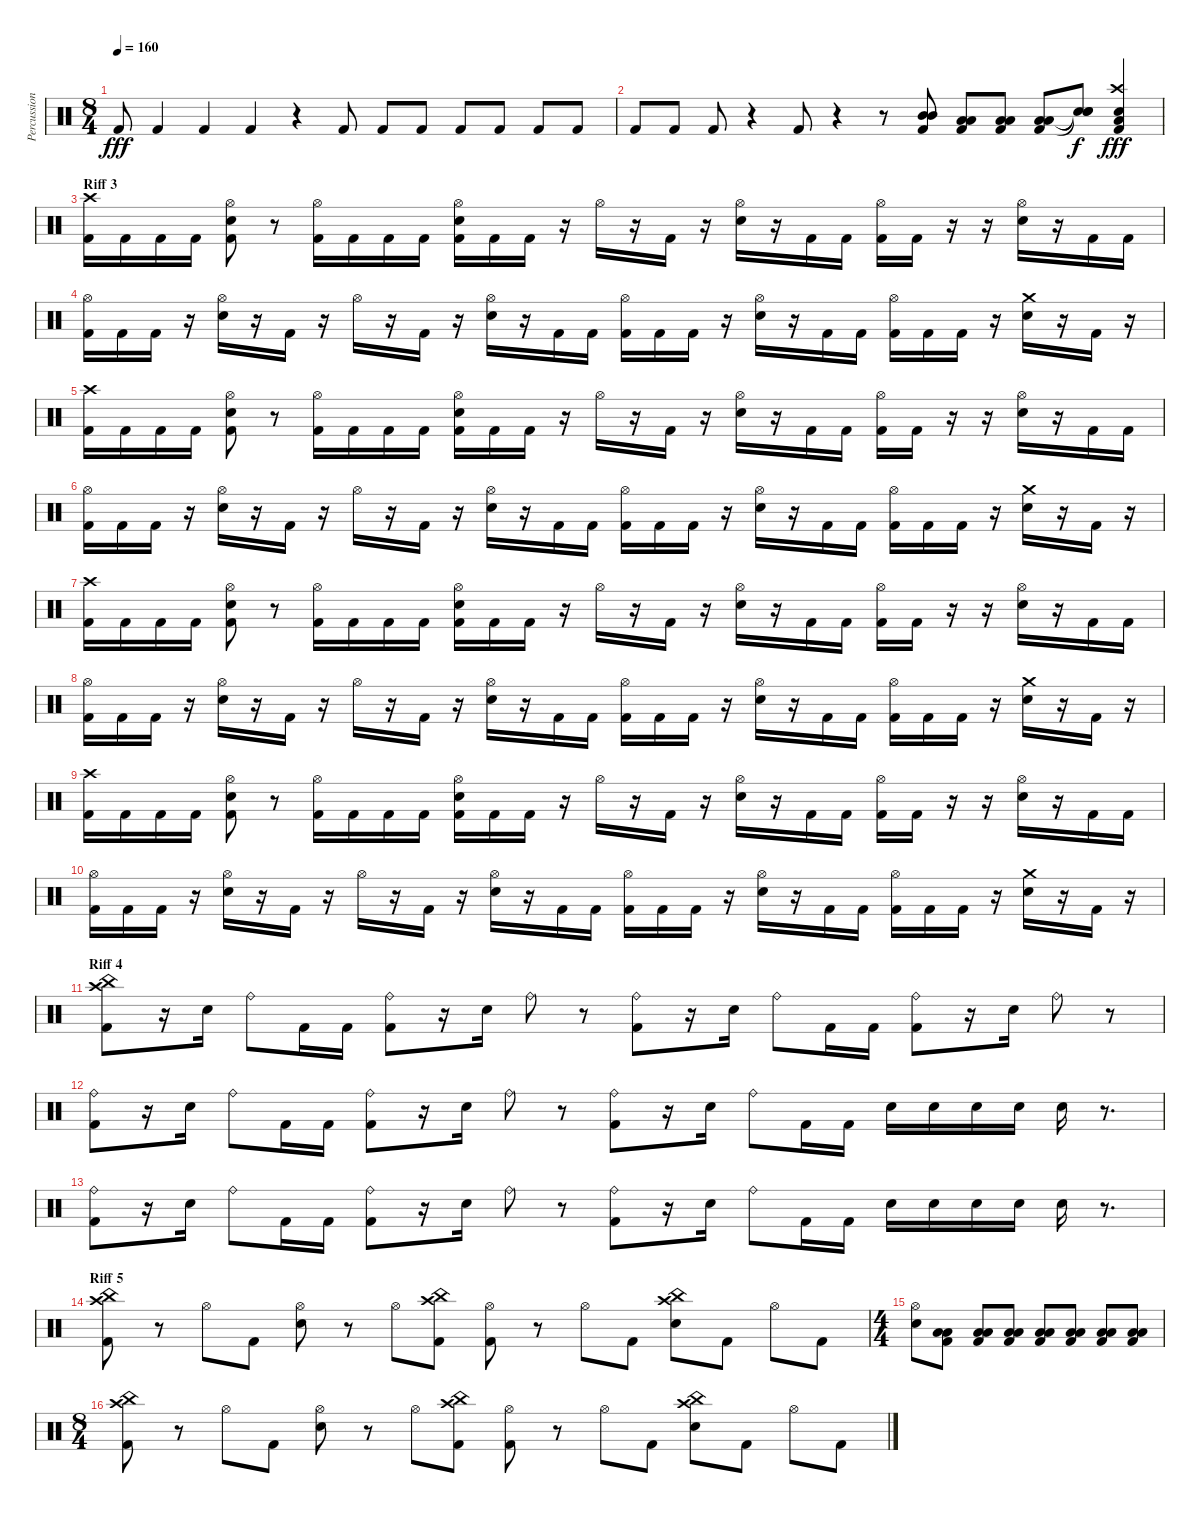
\track ("Percussion" "Percussion") {instrument percussion}
\staff {score}
\articulation defaults
\ts (8 4)
\tempo 160
\clef neutral
\ks c "Kick (hit) 2".8{dy fff} "Kick (hit) 2".4 "Kick (hit) 2".4 "Kick (hit) 2".4
r.4 "Kick (hit) 2".8 "Kick (hit) 2".8 "Kick (hit) 2".8 "Kick (hit) 2".8 "Kick (hit) 2".8 "Kick (hit) 2".8 "Kick (hit) 2".8 |
"Kick (hit) 2".8 "Kick (hit) 2".8 "Kick (hit) 2".8 r.4 "Kick (hit) 2".8 r.4 r.8 ("Mid Tom (hit)" "Mid Tom (hit)" "Kick (hit) 2").8 ("Low Tom (hit)" "Low Tom (hit)" "Kick (hit) 2").8 ("Low Tom (hit)" "Low Tom (hit)" "Kick (hit) 2").8 ("Low Floor Tom (hit)" "Low Floor Tom (hit)" "Kick (hit) 2").8 ("Snare (hit)"{t} "Snare (hit)"{t} "Snare (hit)"{t}).8{dy f} ("Crash high (hit)" "Electric Snare (hit)" "Low Floor Tom (hit)" "Kick (hit) 2").4{dy fff} |
\section ("" "Riff 3")
("Crash high (hit)" "Kick (hit) 2").16 "Kick (hit) 2".16 "Kick (hit) 2".16 "Kick (hit) 2".16 ("Hi-Hat (open)" "Electric Snare (hit)" "Kick (hit) 2").8 r.8 ("Hi-Hat (open)" "Kick (hit) 2").16 "Kick (hit) 2".16 "Kick (hit) 2".16 "Kick (hit) 2".16 ("Hi-Hat (open)" "Electric Snare (hit)" "Kick (hit) 2").16 "Kick (hit) 2".16 "Kick (hit) 2".16 r.16 "Hi-Hat (open)".16 r.16 "Kick (hit) 2".16 r.16 ("Hi-Hat (open)" "Electric Snare (hit)").16 r.16 "Kick (hit) 2".16 "Kick (hit) 2".16 ("Hi-Hat (open)" "Kick (hit) 2").16 "Kick (hit) 2".16 r.16 r.16 ("Hi-Hat (open)" "Electric Snare (hit)").16 r.16 "Kick (hit) 2".16 "Kick (hit) 2".16 |
("Hi-Hat (open)" "Kick (hit) 2").16 "Kick (hit) 2".16 "Kick (hit) 2".16 r.16 ("Hi-Hat (open)" "Electric Snare (hit)").16 r.16 "Kick (hit) 2".16 r.16 "Hi-Hat (open)".16 r.16 "Kick (hit) 2".16 r.16 ("Hi-Hat (open)" "Electric Snare (hit)").16 r.16 "Kick (hit) 2".16 "Kick (hit) 2".16 ("Hi-Hat (open)" "Kick (hit) 2").16 "Kick (hit) 2".16 "Kick (hit) 2".16 r.16 ("Hi-Hat (open)" "Electric Snare (hit)").16 r.16 "Kick (hit) 2".16 "Kick (hit) 2".16 ("Hi-Hat (open)" "Kick (hit) 2").16 "Kick (hit) 2".16 "Kick (hit) 2".16 r.16 ("Crash medium (hit)" "Electric Snare (hit)").16 r.16 "Kick (hit) 2".16 r.16 |
("Crash high (hit)" "Kick (hit) 2").16 "Kick (hit) 2".16 "Kick (hit) 2".16 "Kick (hit) 2".16 ("Hi-Hat (open)" "Electric Snare (hit)" "Kick (hit) 2").8 r.8 ("Hi-Hat (open)" "Kick (hit) 2").16 "Kick (hit) 2".16 "Kick (hit) 2".16 "Kick (hit) 2".16 ("Hi-Hat (open)" "Electric Snare (hit)" "Kick (hit) 2").16 "Kick (hit) 2".16 "Kick (hit) 2".16 r.16 "Hi-Hat (open)".16 r.16 "Kick (hit) 2".16 r.16 ("Hi-Hat (open)" "Electric Snare (hit)").16 r.16 "Kick (hit) 2".16 "Kick (hit) 2".16 ("Hi-Hat (open)" "Kick (hit) 2").16 "Kick (hit) 2".16 r.16 r.16 ("Hi-Hat (open)" "Electric Snare (hit)").16 r.16 "Kick (hit) 2".16 "Kick (hit) 2".16 |
("Hi-Hat (open)" "Kick (hit) 2").16 "Kick (hit) 2".16 "Kick (hit) 2".16 r.16 ("Hi-Hat (open)" "Electric Snare (hit)").16 r.16 "Kick (hit) 2".16 r.16 "Hi-Hat (open)".16 r.16 "Kick (hit) 2".16 r.16 ("Hi-Hat (open)" "Electric Snare (hit)").16 r.16 "Kick (hit) 2".16 "Kick (hit) 2".16 ("Hi-Hat (open)" "Kick (hit) 2").16 "Kick (hit) 2".16 "Kick (hit) 2".16 r.16 ("Hi-Hat (open)" "Electric Snare (hit)").16 r.16 "Kick (hit) 2".16 "Kick (hit) 2".16 ("Hi-Hat (open)" "Kick (hit) 2").16 "Kick (hit) 2".16 "Kick (hit) 2".16 r.16 ("Crash medium (hit)" "Electric Snare (hit)").16 r.16 "Kick (hit) 2".16 r.16 |
("Crash high (hit)" "Kick (hit) 2").16 "Kick (hit) 2".16 "Kick (hit) 2".16 "Kick (hit) 2".16 ("Hi-Hat (open)" "Electric Snare (hit)" "Kick (hit) 2").8 r.8 ("Hi-Hat (open)" "Kick (hit) 2").16 "Kick (hit) 2".16 "Kick (hit) 2".16 "Kick (hit) 2".16 ("Hi-Hat (open)" "Electric Snare (hit)" "Kick (hit) 2").16 "Kick (hit) 2".16 "Kick (hit) 2".16 r.16 "Hi-Hat (open)".16 r.16 "Kick (hit) 2".16 r.16 ("Hi-Hat (open)" "Electric Snare (hit)").16 r.16 "Kick (hit) 2".16 "Kick (hit) 2".16 ("Hi-Hat (open)" "Kick (hit) 2").16 "Kick (hit) 2".16 r.16 r.16 ("Hi-Hat (open)" "Electric Snare (hit)").16 r.16 "Kick (hit) 2".16 "Kick (hit) 2".16 |
("Hi-Hat (open)" "Kick (hit) 2").16 "Kick (hit) 2".16 "Kick (hit) 2".16 r.16 ("Hi-Hat (open)" "Electric Snare (hit)").16 r.16 "Kick (hit) 2".16 r.16 "Hi-Hat (open)".16 r.16 "Kick (hit) 2".16 r.16 ("Hi-Hat (open)" "Electric Snare (hit)").16 r.16 "Kick (hit) 2".16 "Kick (hit) 2".16 ("Hi-Hat (open)" "Kick (hit) 2").16 "Kick (hit) 2".16 "Kick (hit) 2".16 r.16 ("Hi-Hat (open)" "Electric Snare (hit)").16 r.16 "Kick (hit) 2".16 "Kick (hit) 2".16 ("Hi-Hat (open)" "Kick (hit) 2").16 "Kick (hit) 2".16 "Kick (hit) 2".16 r.16 ("Crash medium (hit)" "Electric Snare (hit)").16 r.16 "Kick (hit) 2".16 r.16 |
("Crash high (hit)" "Kick (hit) 2").16 "Kick (hit) 2".16 "Kick (hit) 2".16 "Kick (hit) 2".16 ("Hi-Hat (open)" "Electric Snare (hit)" "Kick (hit) 2").8 r.8 ("Hi-Hat (open)" "Kick (hit) 2").16 "Kick (hit) 2".16 "Kick (hit) 2".16 "Kick (hit) 2".16 ("Hi-Hat (open)" "Electric Snare (hit)" "Kick (hit) 2").16 "Kick (hit) 2".16 "Kick (hit) 2".16 r.16 "Hi-Hat (open)".16 r.16 "Kick (hit) 2".16 r.16 ("Hi-Hat (open)" "Electric Snare (hit)").16 r.16 "Kick (hit) 2".16 "Kick (hit) 2".16 ("Hi-Hat (open)" "Kick (hit) 2").16 "Kick (hit) 2".16 r.16 r.16 ("Hi-Hat (open)" "Electric Snare (hit)").16 r.16 "Kick (hit) 2".16 "Kick (hit) 2".16 |
("Hi-Hat (open)" "Kick (hit) 2").16 "Kick (hit) 2".16 "Kick (hit) 2".16 r.16 ("Hi-Hat (open)" "Electric Snare (hit)").16 r.16 "Kick (hit) 2".16 r.16 "Hi-Hat (open)".16 r.16 "Kick (hit) 2".16 r.16 ("Hi-Hat (open)" "Electric Snare (hit)").16 r.16 "Kick (hit) 2".16 "Kick (hit) 2".16 ("Hi-Hat (open)" "Kick (hit) 2").16 "Kick (hit) 2".16 "Kick (hit) 2".16 r.16 ("Hi-Hat (open)" "Electric Snare (hit)").16 r.16 "Kick (hit) 2".16 "Kick (hit) 2".16 ("Hi-Hat (open)" "Kick (hit) 2").16 "Kick (hit) 2".16 "Kick (hit) 2".16 r.16 ("Crash medium (hit)" "Electric Snare (hit)").16 r.16 "Kick (hit) 2".16 r.16 |
\section ("" "Riff 4")
("China (hit)" "Crash high (hit)" "Kick (hit) 2").8 r.16 "Electric Snare (hit)".16 "Ride (bell)".8 "Kick (hit) 2".16 "Kick (hit) 2".16 ("Ride (bell)" "Kick (hit) 2").8 r.16 "Electric Snare (hit)".16 "Ride (bell)".8 r.8 ("Ride (bell)" "Kick (hit) 2").8 r.16 "Electric Snare (hit)".16 "Ride (bell)".8 "Kick (hit) 2".16 "Kick (hit) 2".16 ("Ride (bell)" "Kick (hit) 2").8 r.16 "Electric Snare (hit)".16 "Ride (bell)".8 r.8 |
("Ride (bell)" "Kick (hit) 2").8 r.16 "Electric Snare (hit)".16 "Ride (bell)".8 "Kick (hit) 2".16 "Kick (hit) 2".16 ("Ride (bell)" "Kick (hit) 2").8 r.16 "Electric Snare (hit)".16 "Ride (bell)".8 r.8 ("Ride (bell)" "Kick (hit) 2").8 r.16 "Electric Snare (hit)".16 "Ride (bell)".8 "Kick (hit) 2".16 "Kick (hit) 2".16 "Electric Snare (hit)".16 "Electric Snare (hit)".16 "Electric Snare (hit)".16 "Electric Snare (hit)".16 "Electric Snare (hit)".16 r.8{d} |
("Ride (bell)" "Kick (hit) 2").8 r.16 "Electric Snare (hit)".16 "Ride (bell)".8 "Kick (hit) 2".16 "Kick (hit) 2".16 ("Ride (bell)" "Kick (hit) 2").8 r.16 "Electric Snare (hit)".16 "Ride (bell)".8 r.8 ("Ride (bell)" "Kick (hit) 2").8 r.16 "Electric Snare (hit)".16 "Ride (bell)".8 "Kick (hit) 2".16 "Kick (hit) 2".16 "Electric Snare (hit)".16 "Electric Snare (hit)".16 "Electric Snare (hit)".16 "Electric Snare (hit)".16 "Electric Snare (hit)".16 r.8{d} |
\section ("" "Riff 5")
("China (hit)" "Crash high (hit)" "Kick (hit) 2").8 r.8 "Hi-Hat (open)".8 "Kick (hit) 2".8 ("Hi-Hat (open)" "Electric Snare (hit)").8 r.8 "Hi-Hat (open)".8 ("China (hit)" "Crash high (hit)" "Kick (hit) 2").8 ("Hi-Hat (open)" "Kick (hit) 2").8 r.8 "Hi-Hat (open)".8 "Kick (hit) 2".8 ("China (hit)" "Crash high (hit)" "Electric Snare (hit)").8 "Kick (hit) 2".8 "Hi-Hat (open)".8 "Kick (hit) 2".8 |
\ts (4 4)
("Hi-Hat (open)" "Electric Snare (hit)").8 ("Low Floor Tom (hit)" "Low Floor Tom (hit)" "Kick (hit) 2").8 ("Low Floor Tom (hit)" "Low Floor Tom (hit)" "Kick (hit) 2").8 ("Low Floor Tom (hit)" "Low Floor Tom (hit)" "Kick (hit) 2").8 ("Low Floor Tom (hit)" "Low Floor Tom (hit)" "Kick (hit) 2").8 ("Low Floor Tom (hit)" "Low Floor Tom (hit)" "Kick (hit) 2").8 ("Low Floor Tom (hit)" "Low Floor Tom (hit)" "Kick (hit) 2").8 ("Low Floor Tom (hit)" "Low Floor Tom (hit)" "Kick (hit) 2").8 |
\ts (8 4)
("China (hit)" "Crash high (hit)" "Kick (hit) 2").8 r.8 "Hi-Hat (open)".8 "Kick (hit) 2".8 ("Hi-Hat (open)" "Electric Snare (hit)").8 r.8 "Hi-Hat (open)".8 ("China (hit)" "Crash high (hit)" "Kick (hit) 2").8 ("Hi-Hat (open)" "Kick (hit) 2").8 r.8 "Hi-Hat (open)".8 "Kick (hit) 2".8 ("China (hit)" "Crash high (hit)" "Electric Snare (hit)").8 "Kick (hit) 2".8 "Hi-Hat (open)".8 "Kick (hit) 2".8
